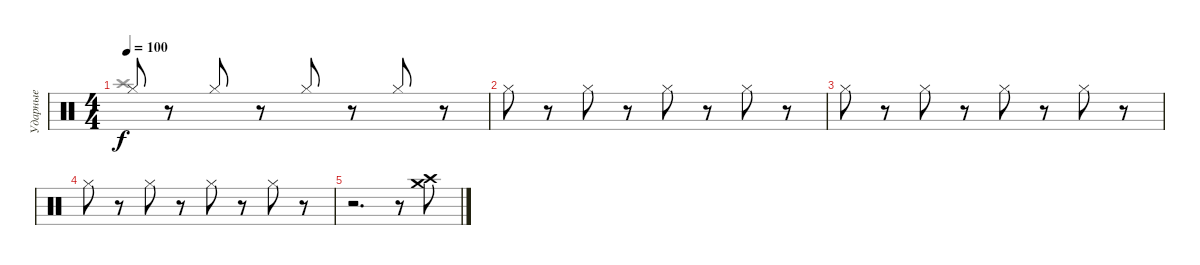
\track ("Ударные" "Ударные") {instrument percussion}
\staff {score}
\articulation defaults
\voice
\ts (4 4)
\tempo 100
\clef neutral
\ks c "Hi-Hat (closed)".8{dy f}
r.8 "Hi-Hat (closed)".8 r.8 "Hi-Hat (closed)".8 r.8 "Hi-Hat (closed)".8 r.8 |
"Hi-Hat (closed)".8 r.8 "Hi-Hat (closed)".8 r.8 "Hi-Hat (closed)".8 r.8 "Hi-Hat (closed)".8 r.8 |
"Hi-Hat (closed)".8 r.8 "Hi-Hat (closed)".8 r.8 "Hi-Hat (closed)".8 r.8 "Hi-Hat (closed)".8 r.8 |
"Hi-Hat (closed)".8 r.8 "Hi-Hat (closed)".8 r.8 "Hi-Hat (closed)".8 r.8 "Hi-Hat (closed)".8 r.8 |
r.2{d} r.8 ("Crash medium (hit)" "Crash high (hit)").8
\voice
\clef neutral
\ottava regular
\simile none
\ks c "Crash high (hit)".1{dy f}
|
|
|
|
